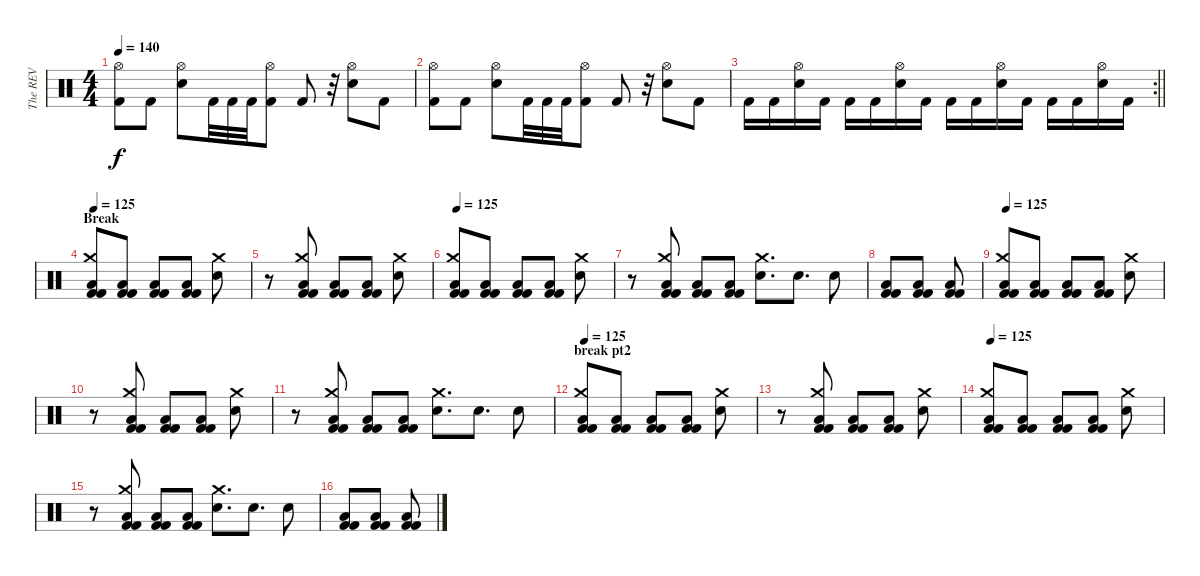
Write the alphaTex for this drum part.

\track ("The REV" "The REV") {instrument percussion}
\staff {score}
\articulation defaults
\ts (4 4)
\tempo 140
\clef neutral
\ks c
("Hi-Hat (open)" "Kick (hit) 2").8{dy f} "Kick (hit) 2".8 ("Hi-Hat (open)" "Electric Snare (hit)").8 "Kick (hit) 2".32 "Kick (hit) 2".32 "Kick (hit) 2".32 ("Hi-Hat (open)" "Kick (hit) 2").8 "Kick (hit) 2".8 r.32 ("Hi-Hat (open)" "Electric Snare (hit)").8 "Kick (hit) 2".8 |
("Hi-Hat (open)" "Kick (hit) 2").8 "Kick (hit) 2".8 ("Hi-Hat (open)" "Electric Snare (hit)").8 "Kick (hit) 2".32 "Kick (hit) 2".32 "Kick (hit) 2".32 ("Hi-Hat (open)" "Kick (hit) 2").8 "Kick (hit) 2".8 r.32 ("Hi-Hat (open)" "Electric Snare (hit)").8 "Kick (hit) 2".8 |
\rc 2
\barLineRight lightlight "Kick (hit) 2".16 "Kick (hit) 2".16
("Hi-Hat (open)" "Electric Snare (hit)").16 "Kick (hit) 2".16 "Kick (hit) 2".16 "Kick (hit) 2".16 ("Hi-Hat (open)" "Electric Snare (hit)").16 "Kick (hit) 2".16 "Kick (hit) 2".16 "Kick (hit) 2".16 ("Hi-Hat (open)" "Electric Snare (hit)").16 "Kick (hit) 2".16 "Kick (hit) 2".16 "Kick (hit) 2".16 ("Hi-Hat (open)" "Electric Snare (hit)").16 "Kick (hit) 2".16 |
\section ("" "Break")
\tempo 125
("Crash medium (hit)" "Low Floor Tom (hit)" "Kick (hit) 2" "Kick (hit) 2").8 ("Low Floor Tom (hit)" "Kick (hit) 2" "Kick (hit) 2").8 ("Low Floor Tom (hit)" "Kick (hit) 2" "Kick (hit) 2").8 ("Low Floor Tom (hit)" "Kick (hit) 2" "Kick (hit) 2").8 ("Crash medium (hit)" "Electric Snare (hit)").8 |
r.8 ("Crash medium (hit)" "Low Floor Tom (hit)" "Kick (hit) 2" "Kick (hit) 2").8 ("Low Floor Tom (hit)" "Kick (hit) 2" "Kick (hit) 2").8 ("Low Floor Tom (hit)" "Kick (hit) 2" "Kick (hit) 2").8 ("Crash medium (hit)" "Electric Snare (hit)").8 |
\tempo 125
("Crash medium (hit)" "Low Floor Tom (hit)" "Kick (hit) 2" "Kick (hit) 2").8 ("Low Floor Tom (hit)" "Kick (hit) 2" "Kick (hit) 2").8 ("Low Floor Tom (hit)" "Kick (hit) 2" "Kick (hit) 2").8 ("Low Floor Tom (hit)" "Kick (hit) 2" "Kick (hit) 2").8 ("Crash medium (hit)" "Electric Snare (hit)").8 |
r.8 ("Crash medium (hit)" "Low Floor Tom (hit)" "Kick (hit) 2" "Kick (hit) 2").8 ("Low Floor Tom (hit)" "Kick (hit) 2" "Kick (hit) 2").8 ("Low Floor Tom (hit)" "Kick (hit) 2" "Kick (hit) 2").8 ("Crash medium (hit)" "Electric Snare (hit)").8{d} "Electric Snare (hit)".8{d} "Electric Snare (hit)".8 |
("Low Floor Tom (hit)" "Kick (hit) 2" "Kick (hit) 2").8 ("Low Floor Tom (hit)" "Kick (hit) 2" "Kick (hit) 2").8 ("Low Floor Tom (hit)" "Kick (hit) 2" "Kick (hit) 2").8 |
\tempo 125
("Crash medium (hit)" "Low Floor Tom (hit)" "Kick (hit) 2" "Kick (hit) 2").8 ("Low Floor Tom (hit)" "Kick (hit) 2" "Kick (hit) 2").8 ("Low Floor Tom (hit)" "Kick (hit) 2" "Kick (hit) 2").8 ("Low Floor Tom (hit)" "Kick (hit) 2" "Kick (hit) 2").8 ("Crash medium (hit)" "Electric Snare (hit)").8 |
r.8 ("Crash medium (hit)" "Low Floor Tom (hit)" "Kick (hit) 2" "Kick (hit) 2").8 ("Low Floor Tom (hit)" "Kick (hit) 2" "Kick (hit) 2").8 ("Low Floor Tom (hit)" "Kick (hit) 2" "Kick (hit) 2").8 ("Crash medium (hit)" "Electric Snare (hit)").8 |
r.8 ("Crash medium (hit)" "Low Floor Tom (hit)" "Kick (hit) 2" "Kick (hit) 2").8 ("Low Floor Tom (hit)" "Kick (hit) 2" "Kick (hit) 2").8 ("Low Floor Tom (hit)" "Kick (hit) 2" "Kick (hit) 2").8 ("Crash medium (hit)" "Electric Snare (hit)").8{d} "Electric Snare (hit)".8{d} "Electric Snare (hit)".8 |
\section ("" "break pt2")
\tempo 125
("Crash medium (hit)" "Low Floor Tom (hit)" "Kick (hit) 2" "Kick (hit) 2").8 ("Low Floor Tom (hit)" "Kick (hit) 2" "Kick (hit) 2").8 ("Low Floor Tom (hit)" "Kick (hit) 2" "Kick (hit) 2").8 ("Low Floor Tom (hit)" "Kick (hit) 2" "Kick (hit) 2").8 ("Crash medium (hit)" "Electric Snare (hit)").8 |
r.8 ("Crash medium (hit)" "Low Floor Tom (hit)" "Kick (hit) 2" "Kick (hit) 2").8 ("Low Floor Tom (hit)" "Kick (hit) 2" "Kick (hit) 2").8 ("Low Floor Tom (hit)" "Kick (hit) 2" "Kick (hit) 2").8 ("Crash medium (hit)" "Electric Snare (hit)").8 |
\tempo 125
("Crash medium (hit)" "Low Floor Tom (hit)" "Kick (hit) 2" "Kick (hit) 2").8 ("Low Floor Tom (hit)" "Kick (hit) 2" "Kick (hit) 2").8 ("Low Floor Tom (hit)" "Kick (hit) 2" "Kick (hit) 2").8 ("Low Floor Tom (hit)" "Kick (hit) 2" "Kick (hit) 2").8 ("Crash medium (hit)" "Electric Snare (hit)").8 |
r.8 ("Crash medium (hit)" "Low Floor Tom (hit)" "Kick (hit) 2" "Kick (hit) 2").8 ("Low Floor Tom (hit)" "Kick (hit) 2" "Kick (hit) 2").8 ("Low Floor Tom (hit)" "Kick (hit) 2" "Kick (hit) 2").8 ("Crash medium (hit)" "Electric Snare (hit)").8{d} "Electric Snare (hit)".8{d} "Electric Snare (hit)".8 |
("Low Floor Tom (hit)" "Kick (hit) 2" "Kick (hit) 2").8 ("Low Floor Tom (hit)" "Kick (hit) 2" "Kick (hit) 2").8 ("Low Floor Tom (hit)" "Kick (hit) 2" "Kick (hit) 2").8
